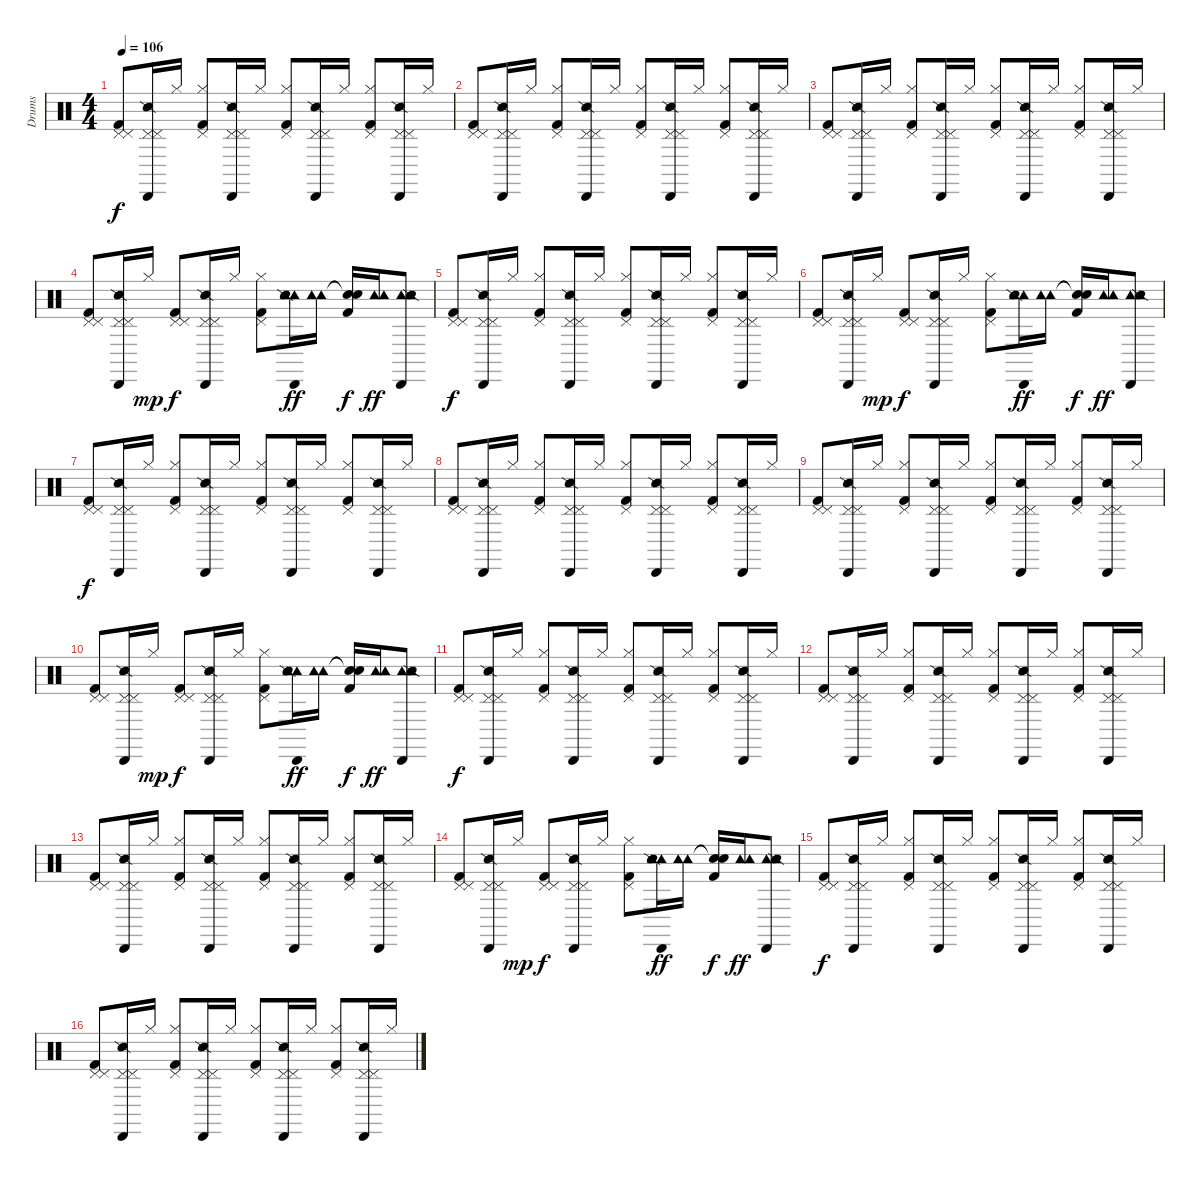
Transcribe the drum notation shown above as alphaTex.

\track ("Drums" "Drums") {instrument percussion}
\staff {score}
\articulation defaults
\ts (4 4)
\tempo 106
\clef neutral
\ks c
("Pedal Hi-Hat (hit)" "Pedal Hi-Hat (hit)" "Kick (hit) 2").8{dy f} ("Pedal Hi-Hat (hit)" "Pedal Hi-Hat (hit)" "Snare (side stick) 2" "Cabasa (hit)").16 "Hi-Hat (closed)".16 ("Pedal Hi-Hat (hit)" "Hi-Hat (closed)" "Kick (hit) 2").8 ("Pedal Hi-Hat (hit)" "Pedal Hi-Hat (hit)" "Snare (side stick) 2" "Cabasa (hit)").16 "Hi-Hat (closed)".16 ("Pedal Hi-Hat (hit)" "Hi-Hat (closed)" "Kick (hit) 2").8 ("Pedal Hi-Hat (hit)" "Pedal Hi-Hat (hit)" "Snare (side stick) 2" "Cabasa (hit)").16 "Hi-Hat (closed)".16 ("Pedal Hi-Hat (hit)" "Hi-Hat (closed)" "Kick (hit) 2").8 ("Pedal Hi-Hat (hit)" "Pedal Hi-Hat (hit)" "Snare (side stick) 2" "Cabasa (hit)").16 "Hi-Hat (closed)".16 |
("Pedal Hi-Hat (hit)" "Pedal Hi-Hat (hit)" "Kick (hit) 2").8 ("Pedal Hi-Hat (hit)" "Pedal Hi-Hat (hit)" "Snare (side stick) 2" "Cabasa (hit)").16 "Hi-Hat (closed)".16 ("Pedal Hi-Hat (hit)" "Hi-Hat (closed)" "Kick (hit) 2").8 ("Pedal Hi-Hat (hit)" "Pedal Hi-Hat (hit)" "Snare (side stick) 2" "Cabasa (hit)").16 "Hi-Hat (closed)".16 ("Pedal Hi-Hat (hit)" "Hi-Hat (closed)" "Kick (hit) 2").8 ("Pedal Hi-Hat (hit)" "Pedal Hi-Hat (hit)" "Snare (side stick) 2" "Cabasa (hit)").16 "Hi-Hat (closed)".16 ("Pedal Hi-Hat (hit)" "Hi-Hat (closed)" "Kick (hit) 2").8 ("Pedal Hi-Hat (hit)" "Pedal Hi-Hat (hit)" "Snare (side stick) 2" "Cabasa (hit)").16 "Hi-Hat (closed)".16 |
("Pedal Hi-Hat (hit)" "Pedal Hi-Hat (hit)" "Kick (hit) 2").8 ("Pedal Hi-Hat (hit)" "Pedal Hi-Hat (hit)" "Snare (side stick) 2" "Cabasa (hit)").16 "Hi-Hat (closed)".16 ("Pedal Hi-Hat (hit)" "Hi-Hat (closed)" "Kick (hit) 2").8 ("Pedal Hi-Hat (hit)" "Pedal Hi-Hat (hit)" "Snare (side stick) 2" "Cabasa (hit)").16 "Hi-Hat (closed)".16 ("Pedal Hi-Hat (hit)" "Hi-Hat (closed)" "Kick (hit) 2").8 ("Pedal Hi-Hat (hit)" "Pedal Hi-Hat (hit)" "Snare (side stick) 2" "Cabasa (hit)").16 "Hi-Hat (closed)".16 ("Pedal Hi-Hat (hit)" "Hi-Hat (closed)" "Kick (hit) 2").8 ("Pedal Hi-Hat (hit)" "Pedal Hi-Hat (hit)" "Snare (side stick) 2" "Cabasa (hit)").16 "Hi-Hat (closed)".16 |
("Pedal Hi-Hat (hit)" "Pedal Hi-Hat (hit)" "Kick (hit) 2").8 ("Pedal Hi-Hat (hit)" "Pedal Hi-Hat (hit)" "Snare (side stick) 2" "Cabasa (hit)").16 "Hi-Hat (closed)".16{dy mp} ("Pedal Hi-Hat (hit)" "Pedal Hi-Hat (hit)" "Kick (hit) 2").8{dy f} ("Pedal Hi-Hat (hit)" "Pedal Hi-Hat (hit)" "Snare (side stick) 2" "Cabasa (hit)").16 "Hi-Hat (closed)".16 ("Pedal Hi-Hat (hit)" "Hi-Hat (closed)" "Kick (hit) 2").8 ("Tambourine (hit)" "Tambourine (hit)" "Snare (side stick) 2" "Cabasa (hit)").16{dy ff} ("Tambourine (hit)" "Tambourine (hit)").16 ("Snare (hit)"{t} "Snare (hit)"{t} "Kick (hit) 2").16{dy f} ("Tambourine (hit)" "Tambourine (hit)").16{dy ff} ("Tambourine (hit)" "Tambourine (hit)" "Snare (side stick) 2" "Cabasa (hit)").8 |
("Pedal Hi-Hat (hit)" "Pedal Hi-Hat (hit)" "Kick (hit) 2").8{dy f} ("Pedal Hi-Hat (hit)" "Pedal Hi-Hat (hit)" "Snare (side stick) 2" "Cabasa (hit)").16 "Hi-Hat (closed)".16 ("Pedal Hi-Hat (hit)" "Hi-Hat (closed)" "Kick (hit) 2").8 ("Pedal Hi-Hat (hit)" "Pedal Hi-Hat (hit)" "Snare (side stick) 2" "Cabasa (hit)").16 "Hi-Hat (closed)".16 ("Pedal Hi-Hat (hit)" "Hi-Hat (closed)" "Kick (hit) 2").8 ("Pedal Hi-Hat (hit)" "Pedal Hi-Hat (hit)" "Snare (side stick) 2" "Cabasa (hit)").16 "Hi-Hat (closed)".16 ("Pedal Hi-Hat (hit)" "Hi-Hat (closed)" "Kick (hit) 2").8 ("Pedal Hi-Hat (hit)" "Pedal Hi-Hat (hit)" "Snare (side stick) 2" "Cabasa (hit)").16 "Hi-Hat (closed)".16 |
("Pedal Hi-Hat (hit)" "Pedal Hi-Hat (hit)" "Kick (hit) 2").8 ("Pedal Hi-Hat (hit)" "Pedal Hi-Hat (hit)" "Snare (side stick) 2" "Cabasa (hit)").16 "Hi-Hat (closed)".16{dy mp} ("Pedal Hi-Hat (hit)" "Pedal Hi-Hat (hit)" "Kick (hit) 2").8{dy f} ("Pedal Hi-Hat (hit)" "Pedal Hi-Hat (hit)" "Snare (side stick) 2" "Cabasa (hit)").16 "Hi-Hat (closed)".16 ("Pedal Hi-Hat (hit)" "Hi-Hat (closed)" "Kick (hit) 2").8 ("Tambourine (hit)" "Tambourine (hit)" "Snare (side stick) 2" "Cabasa (hit)").16{dy ff} ("Tambourine (hit)" "Tambourine (hit)").16 ("Snare (hit)"{t} "Snare (hit)"{t} "Kick (hit) 2").16{dy f} ("Tambourine (hit)" "Tambourine (hit)").16{dy ff} ("Tambourine (hit)" "Tambourine (hit)" "Snare (side stick) 2" "Cabasa (hit)").8 |
("Pedal Hi-Hat (hit)" "Pedal Hi-Hat (hit)" "Kick (hit) 2").8{dy f} ("Pedal Hi-Hat (hit)" "Pedal Hi-Hat (hit)" "Snare (side stick) 2" "Cabasa (hit)").16 "Hi-Hat (closed)".16 ("Pedal Hi-Hat (hit)" "Hi-Hat (closed)" "Kick (hit) 2").8 ("Pedal Hi-Hat (hit)" "Pedal Hi-Hat (hit)" "Snare (side stick) 2" "Cabasa (hit)").16 "Hi-Hat (closed)".16 ("Pedal Hi-Hat (hit)" "Hi-Hat (closed)" "Kick (hit) 2").8 ("Pedal Hi-Hat (hit)" "Pedal Hi-Hat (hit)" "Snare (side stick) 2" "Cabasa (hit)").16 "Hi-Hat (closed)".16 ("Pedal Hi-Hat (hit)" "Hi-Hat (closed)" "Kick (hit) 2").8 ("Pedal Hi-Hat (hit)" "Pedal Hi-Hat (hit)" "Snare (side stick) 2" "Cabasa (hit)").16 "Hi-Hat (closed)".16 |
("Pedal Hi-Hat (hit)" "Pedal Hi-Hat (hit)" "Kick (hit) 2").8 ("Pedal Hi-Hat (hit)" "Pedal Hi-Hat (hit)" "Snare (side stick) 2" "Cabasa (hit)").16 "Hi-Hat (closed)".16 ("Pedal Hi-Hat (hit)" "Hi-Hat (closed)" "Kick (hit) 2").8 ("Pedal Hi-Hat (hit)" "Pedal Hi-Hat (hit)" "Snare (side stick) 2" "Cabasa (hit)").16 "Hi-Hat (closed)".16 ("Pedal Hi-Hat (hit)" "Hi-Hat (closed)" "Kick (hit) 2").8 ("Pedal Hi-Hat (hit)" "Pedal Hi-Hat (hit)" "Snare (side stick) 2" "Cabasa (hit)").16 "Hi-Hat (closed)".16 ("Pedal Hi-Hat (hit)" "Hi-Hat (closed)" "Kick (hit) 2").8 ("Pedal Hi-Hat (hit)" "Pedal Hi-Hat (hit)" "Snare (side stick) 2" "Cabasa (hit)").16 "Hi-Hat (closed)".16 |
("Pedal Hi-Hat (hit)" "Pedal Hi-Hat (hit)" "Kick (hit) 2").8 ("Pedal Hi-Hat (hit)" "Pedal Hi-Hat (hit)" "Snare (side stick) 2" "Cabasa (hit)").16 "Hi-Hat (closed)".16 ("Pedal Hi-Hat (hit)" "Hi-Hat (closed)" "Kick (hit) 2").8 ("Pedal Hi-Hat (hit)" "Pedal Hi-Hat (hit)" "Snare (side stick) 2" "Cabasa (hit)").16 "Hi-Hat (closed)".16 ("Pedal Hi-Hat (hit)" "Hi-Hat (closed)" "Kick (hit) 2").8 ("Pedal Hi-Hat (hit)" "Pedal Hi-Hat (hit)" "Snare (side stick) 2" "Cabasa (hit)").16 "Hi-Hat (closed)".16 ("Pedal Hi-Hat (hit)" "Hi-Hat (closed)" "Kick (hit) 2").8 ("Pedal Hi-Hat (hit)" "Pedal Hi-Hat (hit)" "Snare (side stick) 2" "Cabasa (hit)").16 "Hi-Hat (closed)".16 |
("Pedal Hi-Hat (hit)" "Pedal Hi-Hat (hit)" "Kick (hit) 2").8 ("Pedal Hi-Hat (hit)" "Pedal Hi-Hat (hit)" "Snare (side stick) 2" "Cabasa (hit)").16 "Hi-Hat (closed)".16{dy mp} ("Pedal Hi-Hat (hit)" "Pedal Hi-Hat (hit)" "Kick (hit) 2").8{dy f} ("Pedal Hi-Hat (hit)" "Pedal Hi-Hat (hit)" "Snare (side stick) 2" "Cabasa (hit)").16 "Hi-Hat (closed)".16 ("Pedal Hi-Hat (hit)" "Hi-Hat (closed)" "Kick (hit) 2").8 ("Tambourine (hit)" "Tambourine (hit)" "Snare (side stick) 2" "Cabasa (hit)").16{dy ff} ("Tambourine (hit)" "Tambourine (hit)").16 ("Snare (hit)"{t} "Snare (hit)"{t} "Kick (hit) 2").16{dy f} ("Tambourine (hit)" "Tambourine (hit)").16{dy ff} ("Tambourine (hit)" "Tambourine (hit)" "Snare (side stick) 2" "Cabasa (hit)").8 |
("Pedal Hi-Hat (hit)" "Pedal Hi-Hat (hit)" "Kick (hit) 2").8{dy f} ("Pedal Hi-Hat (hit)" "Pedal Hi-Hat (hit)" "Snare (side stick) 2" "Cabasa (hit)").16 "Hi-Hat (closed)".16 ("Pedal Hi-Hat (hit)" "Hi-Hat (closed)" "Kick (hit) 2").8 ("Pedal Hi-Hat (hit)" "Pedal Hi-Hat (hit)" "Snare (side stick) 2" "Cabasa (hit)").16 "Hi-Hat (closed)".16 ("Pedal Hi-Hat (hit)" "Hi-Hat (closed)" "Kick (hit) 2").8 ("Pedal Hi-Hat (hit)" "Pedal Hi-Hat (hit)" "Snare (side stick) 2" "Cabasa (hit)").16 "Hi-Hat (closed)".16 ("Pedal Hi-Hat (hit)" "Hi-Hat (closed)" "Kick (hit) 2").8 ("Pedal Hi-Hat (hit)" "Pedal Hi-Hat (hit)" "Snare (side stick) 2" "Cabasa (hit)").16 "Hi-Hat (closed)".16 |
("Pedal Hi-Hat (hit)" "Pedal Hi-Hat (hit)" "Kick (hit) 2").8 ("Pedal Hi-Hat (hit)" "Pedal Hi-Hat (hit)" "Snare (side stick) 2" "Cabasa (hit)").16 "Hi-Hat (closed)".16 ("Pedal Hi-Hat (hit)" "Hi-Hat (closed)" "Kick (hit) 2").8 ("Pedal Hi-Hat (hit)" "Pedal Hi-Hat (hit)" "Snare (side stick) 2" "Cabasa (hit)").16 "Hi-Hat (closed)".16 ("Pedal Hi-Hat (hit)" "Hi-Hat (closed)" "Kick (hit) 2").8 ("Pedal Hi-Hat (hit)" "Pedal Hi-Hat (hit)" "Snare (side stick) 2" "Cabasa (hit)").16 "Hi-Hat (closed)".16 ("Pedal Hi-Hat (hit)" "Hi-Hat (closed)" "Kick (hit) 2").8 ("Pedal Hi-Hat (hit)" "Pedal Hi-Hat (hit)" "Snare (side stick) 2" "Cabasa (hit)").16 "Hi-Hat (closed)".16 |
("Pedal Hi-Hat (hit)" "Pedal Hi-Hat (hit)" "Kick (hit) 2").8 ("Pedal Hi-Hat (hit)" "Pedal Hi-Hat (hit)" "Snare (side stick) 2" "Cabasa (hit)").16 "Hi-Hat (closed)".16 ("Pedal Hi-Hat (hit)" "Hi-Hat (closed)" "Kick (hit) 2").8 ("Pedal Hi-Hat (hit)" "Pedal Hi-Hat (hit)" "Snare (side stick) 2" "Cabasa (hit)").16 "Hi-Hat (closed)".16 ("Pedal Hi-Hat (hit)" "Hi-Hat (closed)" "Kick (hit) 2").8 ("Pedal Hi-Hat (hit)" "Pedal Hi-Hat (hit)" "Snare (side stick) 2" "Cabasa (hit)").16 "Hi-Hat (closed)".16 ("Pedal Hi-Hat (hit)" "Hi-Hat (closed)" "Kick (hit) 2").8 ("Pedal Hi-Hat (hit)" "Pedal Hi-Hat (hit)" "Snare (side stick) 2" "Cabasa (hit)").16 "Hi-Hat (closed)".16 |
("Pedal Hi-Hat (hit)" "Pedal Hi-Hat (hit)" "Kick (hit) 2").8 ("Pedal Hi-Hat (hit)" "Pedal Hi-Hat (hit)" "Snare (side stick) 2" "Cabasa (hit)").16 "Hi-Hat (closed)".16{dy mp} ("Pedal Hi-Hat (hit)" "Pedal Hi-Hat (hit)" "Kick (hit) 2").8{dy f} ("Pedal Hi-Hat (hit)" "Pedal Hi-Hat (hit)" "Snare (side stick) 2" "Cabasa (hit)").16 "Hi-Hat (closed)".16 ("Pedal Hi-Hat (hit)" "Hi-Hat (closed)" "Kick (hit) 2").8 ("Tambourine (hit)" "Tambourine (hit)" "Snare (side stick) 2" "Cabasa (hit)").16{dy ff} ("Tambourine (hit)" "Tambourine (hit)").16 ("Snare (hit)"{t} "Snare (hit)"{t} "Kick (hit) 2").16{dy f} ("Tambourine (hit)" "Tambourine (hit)").16{dy ff} ("Tambourine (hit)" "Tambourine (hit)" "Snare (side stick) 2" "Cabasa (hit)").8 |
("Pedal Hi-Hat (hit)" "Pedal Hi-Hat (hit)" "Kick (hit) 2").8{dy f} ("Pedal Hi-Hat (hit)" "Pedal Hi-Hat (hit)" "Snare (side stick) 2" "Cabasa (hit)").16 "Hi-Hat (closed)".16 ("Pedal Hi-Hat (hit)" "Hi-Hat (closed)" "Kick (hit) 2").8 ("Pedal Hi-Hat (hit)" "Pedal Hi-Hat (hit)" "Snare (side stick) 2" "Cabasa (hit)").16 "Hi-Hat (closed)".16 ("Pedal Hi-Hat (hit)" "Hi-Hat (closed)" "Kick (hit) 2").8 ("Pedal Hi-Hat (hit)" "Pedal Hi-Hat (hit)" "Snare (side stick) 2" "Cabasa (hit)").16 "Hi-Hat (closed)".16 ("Pedal Hi-Hat (hit)" "Hi-Hat (closed)" "Kick (hit) 2").8 ("Pedal Hi-Hat (hit)" "Pedal Hi-Hat (hit)" "Snare (side stick) 2" "Cabasa (hit)").16 "Hi-Hat (closed)".16 |
("Pedal Hi-Hat (hit)" "Pedal Hi-Hat (hit)" "Kick (hit) 2").8 ("Pedal Hi-Hat (hit)" "Pedal Hi-Hat (hit)" "Snare (side stick) 2" "Cabasa (hit)").16 "Hi-Hat (closed)".16 ("Pedal Hi-Hat (hit)" "Hi-Hat (closed)" "Kick (hit) 2").8 ("Pedal Hi-Hat (hit)" "Pedal Hi-Hat (hit)" "Snare (side stick) 2" "Cabasa (hit)").16 "Hi-Hat (closed)".16 ("Pedal Hi-Hat (hit)" "Hi-Hat (closed)" "Kick (hit) 2").8 ("Pedal Hi-Hat (hit)" "Pedal Hi-Hat (hit)" "Snare (side stick) 2" "Cabasa (hit)").16 "Hi-Hat (closed)".16 ("Pedal Hi-Hat (hit)" "Hi-Hat (closed)" "Kick (hit) 2").8 ("Pedal Hi-Hat (hit)" "Pedal Hi-Hat (hit)" "Snare (side stick) 2" "Cabasa (hit)").16 "Hi-Hat (closed)".16
